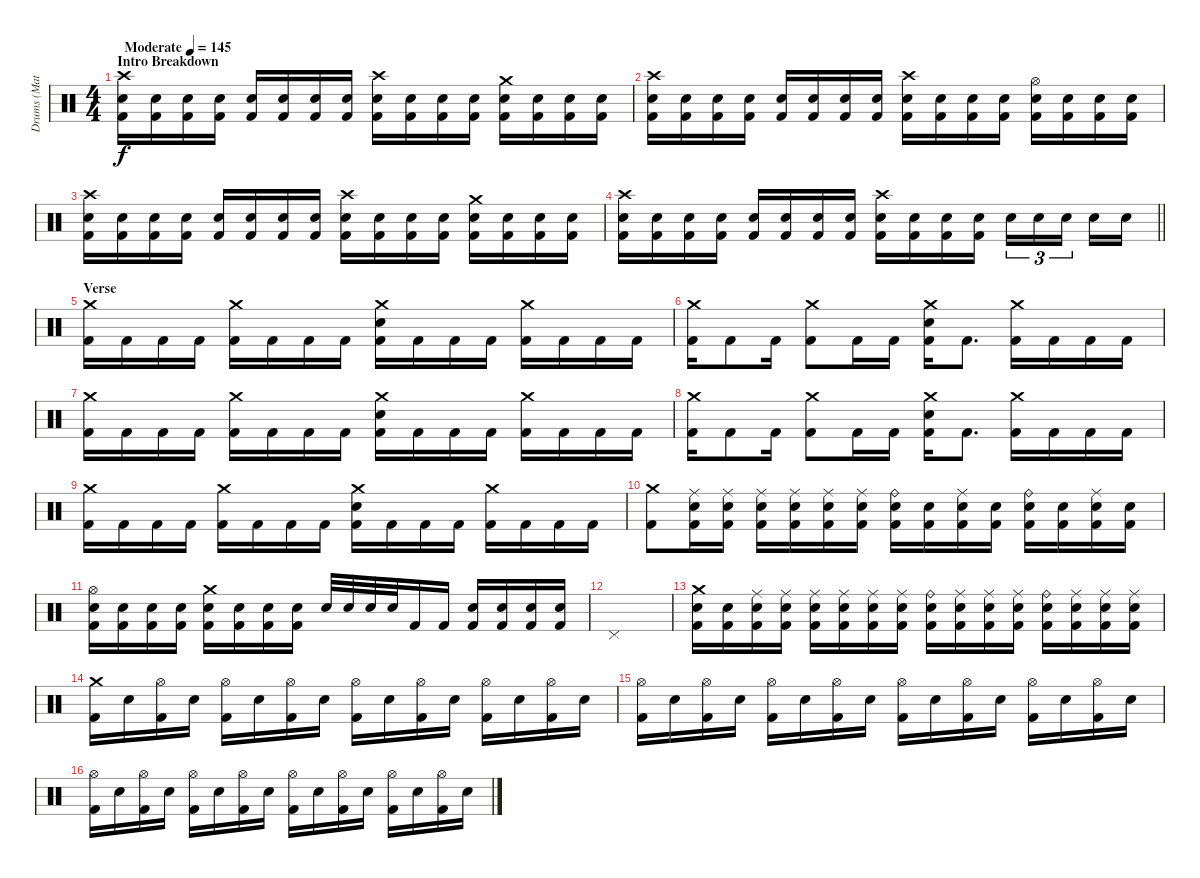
\track ("Drums (Matt Kuykendall)" "Drums (Mat") {instrument percussion}
\staff {score}
\articulation defaults
\ts (4 4)
\section ("" "Intro Breakdown")
\tempo (145 "Moderate")
\clef neutral
\ks c
("Crash high (hit)" "Electric Snare (hit)" "Kick (hit) 2").16{dy f} ("Electric Snare (hit)" "Kick (hit) 2").16 ("Electric Snare (hit)" "Kick (hit) 2").16 ("Electric Snare (hit)" "Kick (hit) 2").16 ("Electric Snare (hit)" "Kick (hit) 2").16 ("Electric Snare (hit)" "Kick (hit) 2").16 ("Electric Snare (hit)" "Kick (hit) 2").16 ("Electric Snare (hit)" "Kick (hit) 2").16 ("Crash high (hit)" "Electric Snare (hit)" "Kick (hit) 2").16 ("Electric Snare (hit)" "Kick (hit) 2").16 ("Electric Snare (hit)" "Kick (hit) 2").16 ("Electric Snare (hit)" "Kick (hit) 2").16 ("Crash medium (hit)" "Electric Snare (hit)" "Kick (hit) 2").16 ("Electric Snare (hit)" "Kick (hit) 2").16 ("Electric Snare (hit)" "Kick (hit) 2").16 ("Electric Snare (hit)" "Kick (hit) 2").16 |
("Crash high (hit)" "Electric Snare (hit)" "Kick (hit) 2").16 ("Electric Snare (hit)" "Kick (hit) 2").16 ("Electric Snare (hit)" "Kick (hit) 2").16 ("Electric Snare (hit)" "Kick (hit) 2").16 ("Electric Snare (hit)" "Kick (hit) 2").16 ("Electric Snare (hit)" "Kick (hit) 2").16 ("Electric Snare (hit)" "Kick (hit) 2").16 ("Electric Snare (hit)" "Kick (hit) 2").16 ("Crash high (hit)" "Electric Snare (hit)" "Kick (hit) 2").16 ("Electric Snare (hit)" "Kick (hit) 2").16 ("Electric Snare (hit)" "Kick (hit) 2").16 ("Electric Snare (hit)" "Kick (hit) 2").16 ("Hi-Hat (open)" "Electric Snare (hit)" "Kick (hit) 2").16 ("Electric Snare (hit)" "Kick (hit) 2").16 ("Electric Snare (hit)" "Kick (hit) 2").16 ("Electric Snare (hit)" "Kick (hit) 2").16 |
("Crash high (hit)" "Electric Snare (hit)" "Kick (hit) 2").16 ("Electric Snare (hit)" "Kick (hit) 2").16 ("Electric Snare (hit)" "Kick (hit) 2").16 ("Electric Snare (hit)" "Kick (hit) 2").16 ("Electric Snare (hit)" "Kick (hit) 2").16 ("Electric Snare (hit)" "Kick (hit) 2").16 ("Electric Snare (hit)" "Kick (hit) 2").16 ("Electric Snare (hit)" "Kick (hit) 2").16 ("Crash high (hit)" "Electric Snare (hit)" "Kick (hit) 2").16 ("Electric Snare (hit)" "Kick (hit) 2").16 ("Electric Snare (hit)" "Kick (hit) 2").16 ("Electric Snare (hit)" "Kick (hit) 2").16 ("Crash medium (hit)" "Electric Snare (hit)" "Kick (hit) 2").16 ("Electric Snare (hit)" "Kick (hit) 2").16 ("Electric Snare (hit)" "Kick (hit) 2").16 ("Electric Snare (hit)" "Kick (hit) 2").16 |
\barLineRight lightlight
("Crash high (hit)" "Electric Snare (hit)" "Kick (hit) 2").16 ("Electric Snare (hit)" "Kick (hit) 2").16 ("Electric Snare (hit)" "Kick (hit) 2").16 ("Electric Snare (hit)" "Kick (hit) 2").16 ("Electric Snare (hit)" "Kick (hit) 2").16 ("Electric Snare (hit)" "Kick (hit) 2").16 ("Electric Snare (hit)" "Kick (hit) 2").16 ("Electric Snare (hit)" "Kick (hit) 2").16 ("Crash high (hit)" "Electric Snare (hit)" "Kick (hit) 2").16 ("Electric Snare (hit)" "Kick (hit) 2").16 ("Electric Snare (hit)" "Kick (hit) 2").16 ("Electric Snare (hit)" "Kick (hit) 2").16 "Electric Snare (hit)".16{tu (3 2)} "Electric Snare (hit)".16{tu (3 2)} "Electric Snare (hit)".16{tu (3 2) beam splitsecondary} "Electric Snare (hit)".16 "Electric Snare (hit)".16 |
\section ("" "Verse")
("Crash medium (hit)" "Kick (hit) 2").16 "Kick (hit) 2".16 "Kick (hit) 2".16 "Kick (hit) 2".16 ("Crash medium (hit)" "Kick (hit) 2").16 "Kick (hit) 2".16 "Kick (hit) 2".16 "Kick (hit) 2".16 ("Crash medium (hit)" "Electric Snare (hit)" "Kick (hit) 2").16 "Kick (hit) 2".16 "Kick (hit) 2".16 "Kick (hit) 2".16 ("Crash medium (hit)" "Kick (hit) 2").16 "Kick (hit) 2".16 "Kick (hit) 2".16 "Kick (hit) 2".16 |
("Crash medium (hit)" "Kick (hit) 2").16 "Kick (hit) 2".8 "Kick (hit) 2".16 ("Crash medium (hit)" "Kick (hit) 2").8 "Kick (hit) 2".16 "Kick (hit) 2".16 ("Crash medium (hit)" "Electric Snare (hit)" "Kick (hit) 2").16 "Kick (hit) 2".8{d} ("Crash medium (hit)" "Kick (hit) 2").16 "Kick (hit) 2".16 "Kick (hit) 2".16 "Kick (hit) 2".16 |
("Crash medium (hit)" "Kick (hit) 2").16 "Kick (hit) 2".16 "Kick (hit) 2".16 "Kick (hit) 2".16 ("Crash medium (hit)" "Kick (hit) 2").16 "Kick (hit) 2".16 "Kick (hit) 2".16 "Kick (hit) 2".16 ("Crash medium (hit)" "Electric Snare (hit)" "Kick (hit) 2").16 "Kick (hit) 2".16 "Kick (hit) 2".16 "Kick (hit) 2".16 ("Crash medium (hit)" "Kick (hit) 2").16 "Kick (hit) 2".16 "Kick (hit) 2".16 "Kick (hit) 2".16 |
("Crash medium (hit)" "Kick (hit) 2").16 "Kick (hit) 2".8 "Kick (hit) 2".16 ("Crash medium (hit)" "Kick (hit) 2").8 "Kick (hit) 2".16 "Kick (hit) 2".16 ("Crash medium (hit)" "Electric Snare (hit)" "Kick (hit) 2").16 "Kick (hit) 2".8{d} ("Crash medium (hit)" "Kick (hit) 2").16 "Kick (hit) 2".16 "Kick (hit) 2".16 "Kick (hit) 2".16 |
("Crash medium (hit)" "Kick (hit) 2").16 "Kick (hit) 2".16 "Kick (hit) 2".16 "Kick (hit) 2".16 ("Crash medium (hit)" "Kick (hit) 2").16 "Kick (hit) 2".16 "Kick (hit) 2".16 "Kick (hit) 2".16 ("Crash medium (hit)" "Electric Snare (hit)" "Kick (hit) 2").16 "Kick (hit) 2".16 "Kick (hit) 2".16 "Kick (hit) 2".16 ("Crash medium (hit)" "Kick (hit) 2").16 "Kick (hit) 2".16 "Kick (hit) 2".16 "Kick (hit) 2".16 |
("Crash medium (hit)" "Kick (hit) 2").8 ("Ride (middle)" "Electric Snare (hit)" "Kick (hit) 2").16 ("Ride (middle)" "Electric Snare (hit)" "Kick (hit) 2").16 ("Ride (middle)" "Electric Snare (hit)" "Kick (hit) 2").16 ("Ride (middle)" "Electric Snare (hit)" "Kick (hit) 2").16 ("Ride (middle)" "Electric Snare (hit)" "Kick (hit) 2").16 ("Ride (middle)" "Electric Snare (hit)" "Kick (hit) 2").16 ("Ride (bell)" "Electric Snare (hit)" "Kick (hit) 2").16 ("Electric Snare (hit)" "Kick (hit) 2").16 ("Ride (middle)" "Electric Snare (hit)" "Kick (hit) 2").16 ("Electric Snare (hit)" "Kick (hit) 2").16 ("Ride (bell)" "Electric Snare (hit)" "Kick (hit) 2").16 ("Electric Snare (hit)" "Kick (hit) 2").16 ("Ride (middle)" "Electric Snare (hit)" "Kick (hit) 2").16 ("Electric Snare (hit)" "Kick (hit) 2").16 |
("Hi-Hat (open)" "Electric Snare (hit)" "Kick (hit) 2").16 ("Electric Snare (hit)" "Kick (hit) 2").16 ("Electric Snare (hit)" "Kick (hit) 2").16 ("Electric Snare (hit)" "Kick (hit) 2").16 ("Crash medium (hit)" "Electric Snare (hit)" "Kick (hit) 2").16 ("Electric Snare (hit)" "Kick (hit) 2").16 ("Electric Snare (hit)" "Kick (hit) 2").16 ("Electric Snare (hit)" "Kick (hit) 2").16 "Electric Snare (hit)".32 "Electric Snare (hit)".32 "Electric Snare (hit)".32 "Electric Snare (hit)".32 "Kick (hit) 2".16 "Kick (hit) 2".16 ("Electric Snare (hit)" "Kick (hit) 2").16 ("Electric Snare (hit)" "Kick (hit) 2").16 ("Electric Snare (hit)" "Kick (hit) 2").16 ("Electric Snare (hit)" "Kick (hit) 2").16 |
"Pedal Hi-Hat (hit)".1 |
("Crash medium (hit)" "Electric Snare (hit)" "Kick (hit) 2").16 ("Electric Snare (hit)" "Kick (hit) 2").16 ("Ride (middle)" "Electric Snare (hit)" "Kick (hit) 2").16 ("Ride (middle)" "Electric Snare (hit)" "Kick (hit) 2").16 ("Ride (middle)" "Electric Snare (hit)" "Kick (hit) 2").16 ("Ride (middle)" "Electric Snare (hit)" "Kick (hit) 2").16 ("Ride (middle)" "Electric Snare (hit)" "Kick (hit) 2").16 ("Ride (middle)" "Electric Snare (hit)" "Kick (hit) 2").16 ("Ride (bell)" "Electric Snare (hit)" "Kick (hit) 2").16 ("Ride (middle)" "Electric Snare (hit)" "Kick (hit) 2").16 ("Ride (middle)" "Electric Snare (hit)" "Kick (hit) 2").16 ("Ride (middle)" "Electric Snare (hit)" "Kick (hit) 2").16 ("Ride (bell)" "Electric Snare (hit)" "Kick (hit) 2").16 ("Ride (middle)" "Electric Snare (hit)" "Kick (hit) 2").16 ("Ride (middle)" "Electric Snare (hit)" "Kick (hit) 2").16 ("Ride (middle)" "Electric Snare (hit)" "Kick (hit) 2").16 |
("Crash medium (hit)" "Kick (hit) 2").16 "Electric Snare (hit)".16 ("Hi-Hat (open)" "Kick (hit) 2").16 "Electric Snare (hit)".16 ("Hi-Hat (open)" "Kick (hit) 2").16 "Electric Snare (hit)".16 ("Hi-Hat (open)" "Kick (hit) 2").16 "Electric Snare (hit)".16 ("Hi-Hat (open)" "Kick (hit) 2").16 "Electric Snare (hit)".16 ("Hi-Hat (open)" "Kick (hit) 2").16 "Electric Snare (hit)".16 ("Hi-Hat (open)" "Kick (hit) 2").16 "Electric Snare (hit)".16 ("Hi-Hat (open)" "Kick (hit) 2").16 "Electric Snare (hit)".16 |
("Hi-Hat (open)" "Kick (hit) 2").16 "Electric Snare (hit)".16 ("Hi-Hat (open)" "Kick (hit) 2").16 "Electric Snare (hit)".16 ("Hi-Hat (open)" "Kick (hit) 2").16 "Electric Snare (hit)".16 ("Hi-Hat (open)" "Kick (hit) 2").16 "Electric Snare (hit)".16 ("Hi-Hat (open)" "Kick (hit) 2").16 "Electric Snare (hit)".16 ("Hi-Hat (open)" "Kick (hit) 2").16 "Electric Snare (hit)".16 ("Hi-Hat (open)" "Kick (hit) 2").16 "Electric Snare (hit)".16 ("Hi-Hat (open)" "Kick (hit) 2").16 "Electric Snare (hit)".16 |
("Hi-Hat (open)" "Kick (hit) 2").16 "Electric Snare (hit)".16 ("Hi-Hat (open)" "Kick (hit) 2").16 "Electric Snare (hit)".16 ("Hi-Hat (open)" "Kick (hit) 2").16 "Electric Snare (hit)".16 ("Hi-Hat (open)" "Kick (hit) 2").16 "Electric Snare (hit)".16 ("Hi-Hat (open)" "Kick (hit) 2").16 "Electric Snare (hit)".16 ("Hi-Hat (open)" "Kick (hit) 2").16 "Electric Snare (hit)".16 ("Hi-Hat (open)" "Kick (hit) 2").16 "Electric Snare (hit)".16 ("Hi-Hat (open)" "Kick (hit) 2").16 "Electric Snare (hit)".16
